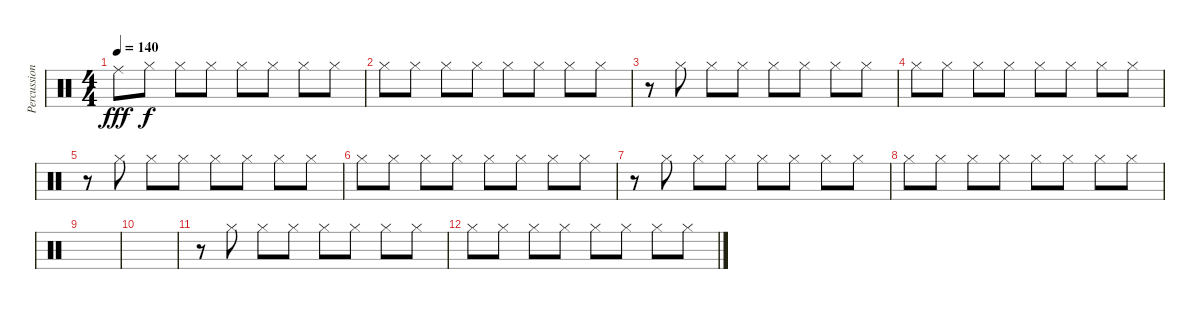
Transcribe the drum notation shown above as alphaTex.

\track ("Percussion" "Percussion") {instrument percussion}
\staff {score}
\articulation defaults
\ts (4 4)
\tempo 140
\clef neutral
\ks c "Ride (middle)".8{dy fff} "Hi-Hat (closed)".8{dy f} "Hi-Hat (closed)".8 "Hi-Hat (closed)".8 "Hi-Hat (closed)".8 "Hi-Hat (closed)".8 "Hi-Hat (closed)".8 "Hi-Hat (closed)".8
|
"Hi-Hat (closed)".8 "Hi-Hat (closed)".8 "Hi-Hat (closed)".8 "Hi-Hat (closed)".8 "Hi-Hat (closed)".8 "Hi-Hat (closed)".8 "Hi-Hat (closed)".8 "Hi-Hat (closed)".8 |
r.8 "Hi-Hat (closed)".8 "Hi-Hat (closed)".8 "Hi-Hat (closed)".8 "Hi-Hat (closed)".8 "Hi-Hat (closed)".8 "Hi-Hat (closed)".8 "Hi-Hat (closed)".8 |
"Hi-Hat (closed)".8 "Hi-Hat (closed)".8 "Hi-Hat (closed)".8 "Hi-Hat (closed)".8 "Hi-Hat (closed)".8 "Hi-Hat (closed)".8 "Hi-Hat (closed)".8 "Hi-Hat (closed)".8 |
r.8 "Hi-Hat (closed)".8 "Hi-Hat (closed)".8 "Hi-Hat (closed)".8 "Hi-Hat (closed)".8 "Hi-Hat (closed)".8 "Hi-Hat (closed)".8 "Hi-Hat (closed)".8 |
"Hi-Hat (closed)".8 "Hi-Hat (closed)".8 "Hi-Hat (closed)".8 "Hi-Hat (closed)".8 "Hi-Hat (closed)".8 "Hi-Hat (closed)".8 "Hi-Hat (closed)".8 "Hi-Hat (closed)".8 |
r.8 "Hi-Hat (closed)".8 "Hi-Hat (closed)".8 "Hi-Hat (closed)".8 "Hi-Hat (closed)".8 "Hi-Hat (closed)".8 "Hi-Hat (closed)".8 "Hi-Hat (closed)".8 |
"Hi-Hat (closed)".8 "Hi-Hat (closed)".8 "Hi-Hat (closed)".8 "Hi-Hat (closed)".8 "Hi-Hat (closed)".8 "Hi-Hat (closed)".8 "Hi-Hat (closed)".8 "Hi-Hat (closed)".8 |
|
|
r.8 "Hi-Hat (closed)".8 "Hi-Hat (closed)".8 "Hi-Hat (closed)".8 "Hi-Hat (closed)".8 "Hi-Hat (closed)".8 "Hi-Hat (closed)".8 "Hi-Hat (closed)".8 |
"Hi-Hat (closed)".8 "Hi-Hat (closed)".8 "Hi-Hat (closed)".8 "Hi-Hat (closed)".8 "Hi-Hat (closed)".8 "Hi-Hat (closed)".8 "Hi-Hat (closed)".8 "Hi-Hat (closed)".8
